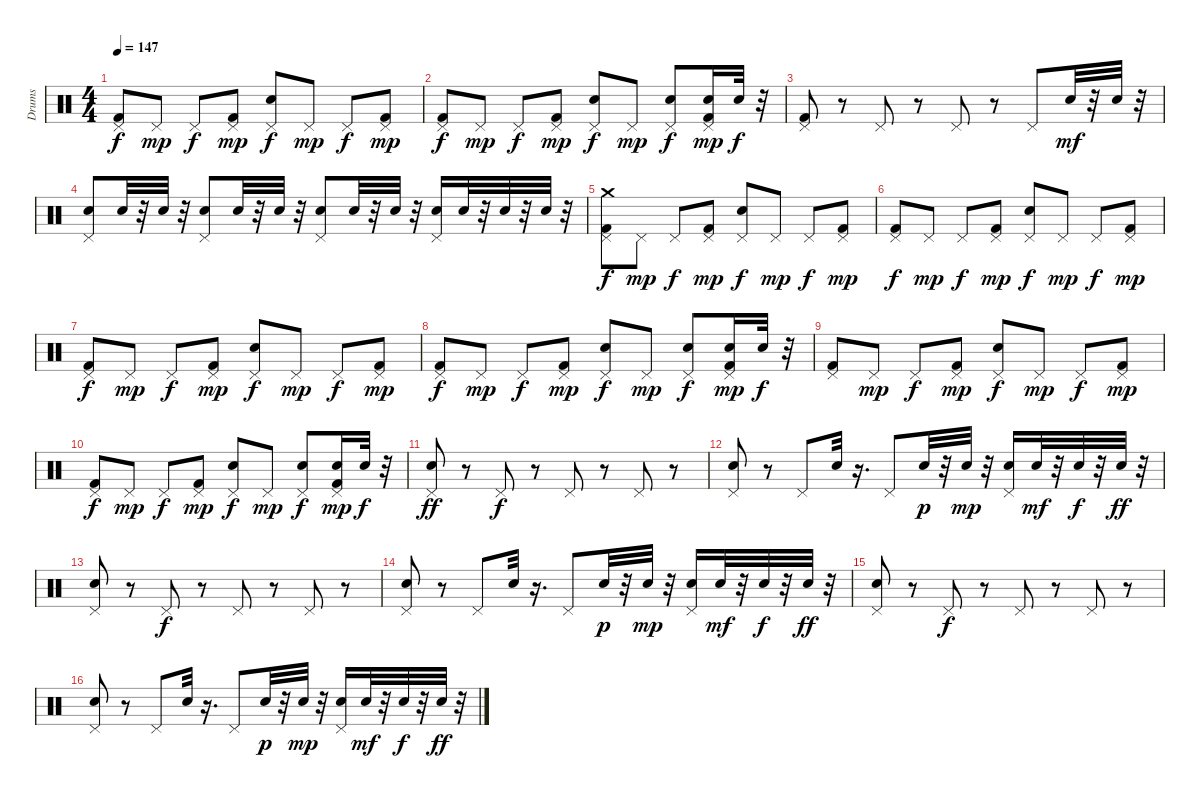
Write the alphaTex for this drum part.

\track ("Drums" "Drums") {instrument percussion}
\staff {score}
\articulation defaults
\ts (4 4)
\tempo 147
\clef neutral
\ks c
("Pedal Hi-Hat (hit)" "Kick (hit) 2").8{dy f} "Pedal Hi-Hat (hit)".8{dy mp} "Pedal Hi-Hat (hit)".8{dy f} ("Pedal Hi-Hat (hit)" "Kick (hit) 2").8{dy mp} ("Pedal Hi-Hat (hit)" "Snare (hit) 2").8{dy f} "Pedal Hi-Hat (hit)".8{dy mp} "Pedal Hi-Hat (hit)".8{dy f} ("Pedal Hi-Hat (hit)" "Kick (hit) 2").8{dy mp} |
("Pedal Hi-Hat (hit)" "Kick (hit) 2").8{dy f} "Pedal Hi-Hat (hit)".8{dy mp} "Pedal Hi-Hat (hit)".8{dy f} ("Pedal Hi-Hat (hit)" "Kick (hit) 2").8{dy mp} ("Pedal Hi-Hat (hit)" "Snare (hit) 2").8{dy f} "Pedal Hi-Hat (hit)".8{dy mp} ("Pedal Hi-Hat (hit)" "Snare (hit) 2").8{dy f} ("Pedal Hi-Hat (hit)" "Snare (hit) 2" "Kick (hit) 2").16{dy mp} "Snare (hit) 2".32{dy f} r.32 |
("Pedal Hi-Hat (hit)" "Kick (hit) 2").8 r.8 "Pedal Hi-Hat (hit)".8 r.8 "Pedal Hi-Hat (hit)".8 r.8 "Pedal Hi-Hat (hit)".8 "Snare (hit) 2".32{dy mf} r.32 "Snare (hit) 2".32 r.32 |
("Pedal Hi-Hat (hit)" "Snare (hit) 2").8 "Snare (hit) 2".32 r.32 "Snare (hit) 2".32 r.32 ("Pedal Hi-Hat (hit)" "Snare (hit) 2").8 "Snare (hit) 2".32 r.32 "Snare (hit) 2".32 r.32 ("Pedal Hi-Hat (hit)" "Snare (hit) 2").8 "Snare (hit) 2".32 r.32 "Snare (hit) 2".32 r.32 ("Pedal Hi-Hat (hit)" "Snare (hit) 2").16 "Snare (hit) 2".32 r.32 "Snare (hit) 2".32 r.32 "Snare (hit) 2".32 r.32 |
("Pedal Hi-Hat (hit)" "Kick (hit) 2" "Crash medium (hit)").8{dy f} "Pedal Hi-Hat (hit)".8{dy mp} "Pedal Hi-Hat (hit)".8{dy f} ("Pedal Hi-Hat (hit)" "Kick (hit) 2").8{dy mp} ("Pedal Hi-Hat (hit)" "Snare (hit) 2").8{dy f} "Pedal Hi-Hat (hit)".8{dy mp} "Pedal Hi-Hat (hit)".8{dy f} ("Pedal Hi-Hat (hit)" "Kick (hit) 2").8{dy mp} |
("Pedal Hi-Hat (hit)" "Kick (hit) 2").8{dy f} "Pedal Hi-Hat (hit)".8{dy mp} "Pedal Hi-Hat (hit)".8{dy f} ("Pedal Hi-Hat (hit)" "Kick (hit) 2").8{dy mp} ("Pedal Hi-Hat (hit)" "Snare (hit) 2").8{dy f} "Pedal Hi-Hat (hit)".8{dy mp} "Pedal Hi-Hat (hit)".8{dy f} ("Pedal Hi-Hat (hit)" "Kick (hit) 2").8{dy mp} |
("Pedal Hi-Hat (hit)" "Kick (hit) 2").8{dy f} "Pedal Hi-Hat (hit)".8{dy mp} "Pedal Hi-Hat (hit)".8{dy f} ("Pedal Hi-Hat (hit)" "Kick (hit) 2").8{dy mp} ("Pedal Hi-Hat (hit)" "Snare (hit) 2").8{dy f} "Pedal Hi-Hat (hit)".8{dy mp} "Pedal Hi-Hat (hit)".8{dy f} ("Pedal Hi-Hat (hit)" "Kick (hit) 2").8{dy mp} |
("Pedal Hi-Hat (hit)" "Kick (hit) 2").8{dy f} "Pedal Hi-Hat (hit)".8{dy mp} "Pedal Hi-Hat (hit)".8{dy f} ("Pedal Hi-Hat (hit)" "Kick (hit) 2").8{dy mp} ("Pedal Hi-Hat (hit)" "Snare (hit) 2").8{dy f} "Pedal Hi-Hat (hit)".8{dy mp} ("Pedal Hi-Hat (hit)" "Snare (hit) 2").8{dy f} ("Pedal Hi-Hat (hit)" "Snare (hit) 2" "Kick (hit) 2").16{dy mp} "Snare (hit) 2".32{dy f} r.32 |
("Pedal Hi-Hat (hit)" "Kick (hit) 2").8 "Pedal Hi-Hat (hit)".8{dy mp} "Pedal Hi-Hat (hit)".8{dy f} ("Pedal Hi-Hat (hit)" "Kick (hit) 2").8{dy mp} ("Pedal Hi-Hat (hit)" "Snare (hit) 2").8{dy f} "Pedal Hi-Hat (hit)".8{dy mp} "Pedal Hi-Hat (hit)".8{dy f} ("Pedal Hi-Hat (hit)" "Kick (hit) 2").8{dy mp} |
("Pedal Hi-Hat (hit)" "Kick (hit) 2").8{dy f} "Pedal Hi-Hat (hit)".8{dy mp} "Pedal Hi-Hat (hit)".8{dy f} ("Pedal Hi-Hat (hit)" "Kick (hit) 2").8{dy mp} ("Pedal Hi-Hat (hit)" "Snare (hit) 2").8{dy f} "Pedal Hi-Hat (hit)".8{dy mp} ("Pedal Hi-Hat (hit)" "Snare (hit) 2").8{dy f} ("Pedal Hi-Hat (hit)" "Snare (hit) 2" "Kick (hit) 2").16{dy mp} "Snare (hit) 2".32{dy f} r.32 |
("Pedal Hi-Hat (hit)" "Snare (hit) 2").8{dy ff} r.8 "Pedal Hi-Hat (hit)".8{dy f} r.8 "Pedal Hi-Hat (hit)".8 r.8 "Pedal Hi-Hat (hit)".8 r.8 |
("Pedal Hi-Hat (hit)" "Snare (hit) 2").8 r.8 "Pedal Hi-Hat (hit)".8 "Snare (hit) 2".32 r.16{d} "Pedal Hi-Hat (hit)".8 "Snare (hit) 2".32{dy p} r.32 "Snare (hit) 2".32{dy mp} r.32 ("Pedal Hi-Hat (hit)" "Snare (hit) 2").16 "Snare (hit) 2".32{dy mf} r.32 "Snare (hit) 2".32{dy f} r.32 "Snare (hit) 2".32{dy ff} r.32 |
("Pedal Hi-Hat (hit)" "Snare (hit) 2").8 r.8 "Pedal Hi-Hat (hit)".8{dy f} r.8 "Pedal Hi-Hat (hit)".8 r.8 "Pedal Hi-Hat (hit)".8 r.8 |
("Pedal Hi-Hat (hit)" "Snare (hit) 2").8 r.8 "Pedal Hi-Hat (hit)".8 "Snare (hit) 2".32 r.16{d} "Pedal Hi-Hat (hit)".8 "Snare (hit) 2".32{dy p} r.32 "Snare (hit) 2".32{dy mp} r.32 ("Pedal Hi-Hat (hit)" "Snare (hit) 2").16 "Snare (hit) 2".32{dy mf} r.32 "Snare (hit) 2".32{dy f} r.32 "Snare (hit) 2".32{dy ff} r.32 |
("Pedal Hi-Hat (hit)" "Snare (hit) 2").8 r.8 "Pedal Hi-Hat (hit)".8{dy f} r.8 "Pedal Hi-Hat (hit)".8 r.8 "Pedal Hi-Hat (hit)".8 r.8 |
("Pedal Hi-Hat (hit)" "Snare (hit) 2").8 r.8 "Pedal Hi-Hat (hit)".8 "Snare (hit) 2".32 r.16{d} "Pedal Hi-Hat (hit)".8 "Snare (hit) 2".32{dy p} r.32 "Snare (hit) 2".32{dy mp} r.32 ("Pedal Hi-Hat (hit)" "Snare (hit) 2").16 "Snare (hit) 2".32{dy mf} r.32 "Snare (hit) 2".32{dy f} r.32 "Snare (hit) 2".32{dy ff} r.32
